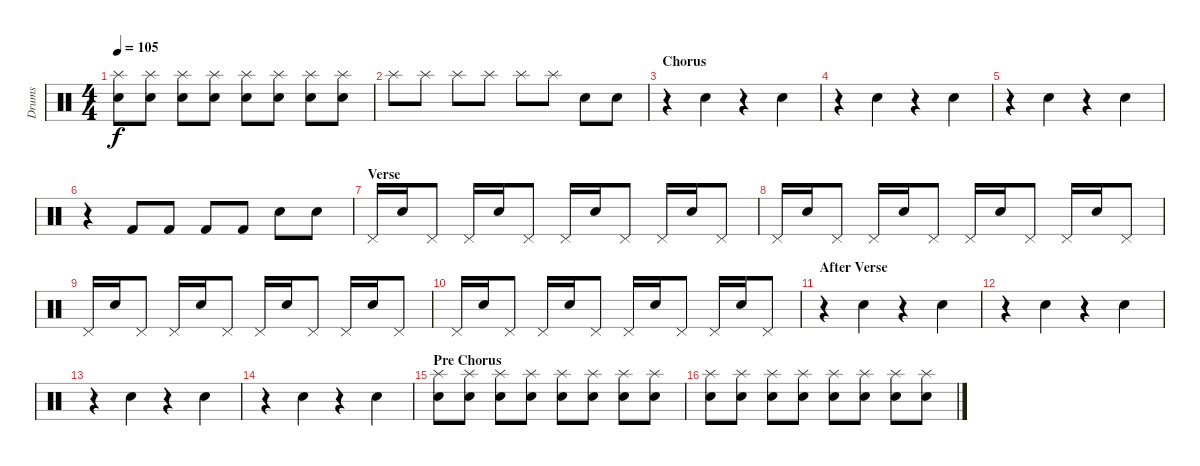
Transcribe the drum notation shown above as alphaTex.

\track ("Drums" "Drums") {instrument percussion}
\staff {score}
\articulation defaults
\ts (4 4)
\tempo 105
\clef neutral
\ks c
("Electric Snare (hit)" "Splash (hit)").8{dy f} ("Electric Snare (hit)" "Splash (hit)").8 ("Electric Snare (hit)" "Splash (hit)").8 ("Electric Snare (hit)" "Splash (hit)").8 ("Electric Snare (hit)" "Splash (hit)").8 ("Electric Snare (hit)" "Splash (hit)").8 ("Electric Snare (hit)" "Splash (hit)").8 ("Electric Snare (hit)" "Splash (hit)").8 |
"Splash (hit)".8 "Splash (hit)".8 "Splash (hit)".8 "Splash (hit)".8 "Splash (hit)".8 "Splash (hit)".8 "Electric Snare (hit)".8 "Electric Snare (hit)".8 |
\section ("" "Chorus")
r.4 "Electric Snare (hit)".4 r.4 "Electric Snare (hit)".4 |
r.4 "Electric Snare (hit)".4 r.4 "Electric Snare (hit)".4 |
r.4 "Electric Snare (hit)".4 r.4 "Electric Snare (hit)".4 |
r.4 "Kick (hit) 2".8 "Kick (hit) 2".8 "Kick (hit) 2".8 "Kick (hit) 2".8 "Electric Snare (hit)".8 "Electric Snare (hit)".8 |
\section ("" "Verse")
"Pedal Hi-Hat (hit)".16 "Electric Snare (hit)".16 "Pedal Hi-Hat (hit)".8 "Pedal Hi-Hat (hit)".16 "Electric Snare (hit)".16 "Pedal Hi-Hat (hit)".8 "Pedal Hi-Hat (hit)".16 "Electric Snare (hit)".16 "Pedal Hi-Hat (hit)".8 "Pedal Hi-Hat (hit)".16 "Electric Snare (hit)".16 "Pedal Hi-Hat (hit)".8 |
"Pedal Hi-Hat (hit)".16 "Electric Snare (hit)".16 "Pedal Hi-Hat (hit)".8 "Pedal Hi-Hat (hit)".16 "Electric Snare (hit)".16 "Pedal Hi-Hat (hit)".8 "Pedal Hi-Hat (hit)".16 "Electric Snare (hit)".16 "Pedal Hi-Hat (hit)".8 "Pedal Hi-Hat (hit)".16 "Electric Snare (hit)".16 "Pedal Hi-Hat (hit)".8 |
"Pedal Hi-Hat (hit)".16 "Electric Snare (hit)".16 "Pedal Hi-Hat (hit)".8 "Pedal Hi-Hat (hit)".16 "Electric Snare (hit)".16 "Pedal Hi-Hat (hit)".8 "Pedal Hi-Hat (hit)".16 "Electric Snare (hit)".16 "Pedal Hi-Hat (hit)".8 "Pedal Hi-Hat (hit)".16 "Electric Snare (hit)".16 "Pedal Hi-Hat (hit)".8 |
"Pedal Hi-Hat (hit)".16 "Electric Snare (hit)".16 "Pedal Hi-Hat (hit)".8 "Pedal Hi-Hat (hit)".16 "Electric Snare (hit)".16 "Pedal Hi-Hat (hit)".8 "Pedal Hi-Hat (hit)".16 "Electric Snare (hit)".16 "Pedal Hi-Hat (hit)".8 "Pedal Hi-Hat (hit)".16 "Electric Snare (hit)".16 "Pedal Hi-Hat (hit)".8 |
\section ("" "After Verse")
r.4 "Electric Snare (hit)".4 r.4 "Electric Snare (hit)".4 |
r.4 "Electric Snare (hit)".4 r.4 "Electric Snare (hit)".4 |
r.4 "Electric Snare (hit)".4 r.4 "Electric Snare (hit)".4 |
r.4 "Electric Snare (hit)".4 r.4 "Electric Snare (hit)".4 |
\section ("" "Pre Chorus")
("Electric Snare (hit)" "Splash (hit)").8 ("Electric Snare (hit)" "Splash (hit)").8 ("Electric Snare (hit)" "Splash (hit)").8 ("Electric Snare (hit)" "Splash (hit)").8 ("Electric Snare (hit)" "Splash (hit)").8 ("Electric Snare (hit)" "Splash (hit)").8 ("Electric Snare (hit)" "Splash (hit)").8 ("Electric Snare (hit)" "Splash (hit)").8 |
("Electric Snare (hit)" "Splash (hit)").8 ("Electric Snare (hit)" "Splash (hit)").8 ("Electric Snare (hit)" "Splash (hit)").8 ("Electric Snare (hit)" "Splash (hit)").8 ("Electric Snare (hit)" "Splash (hit)").8 ("Electric Snare (hit)" "Splash (hit)").8 ("Electric Snare (hit)" "Splash (hit)").8 ("Electric Snare (hit)" "Splash (hit)").8
